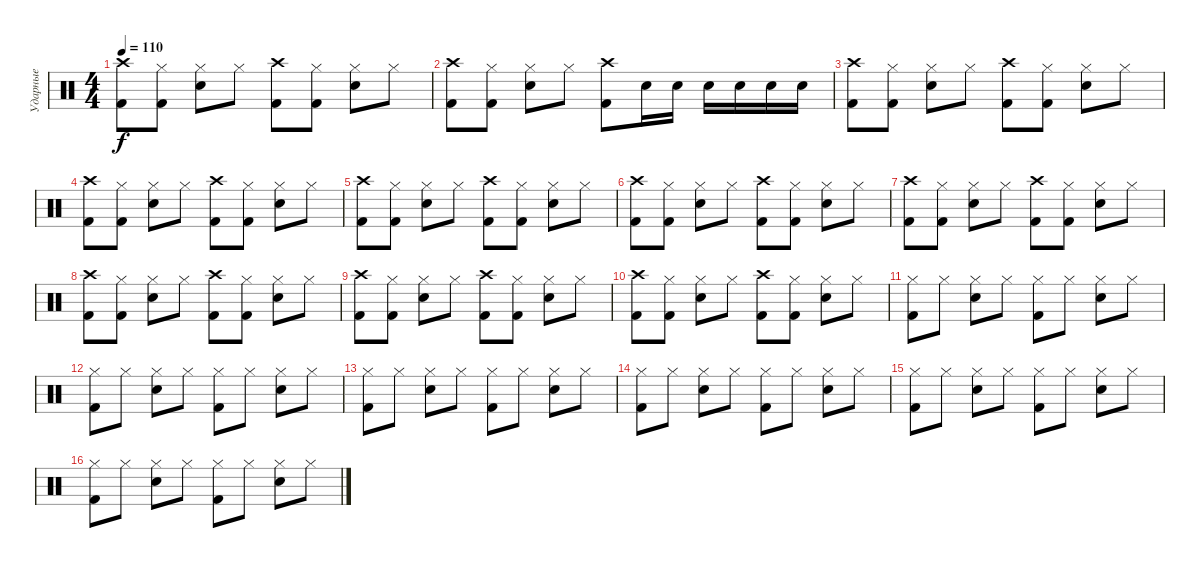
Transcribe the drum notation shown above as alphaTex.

\track ("Ударные" "Ударные") {instrument percussion}
\staff {score}
\articulation defaults
\ts (4 4)
\tempo 110
\clef neutral
\ks c
("Crash high (hit)" "Kick (hit) 2").8{dy f} ("Hi-Hat (closed)" "Kick (hit) 2").8 ("Hi-Hat (closed)" "Snare (hit) 2").8 "Hi-Hat (closed)".8 ("Crash high (hit)" "Kick (hit) 2").8 ("Hi-Hat (closed)" "Kick (hit) 2").8 ("Hi-Hat (closed)" "Snare (hit) 2").8 "Hi-Hat (closed)".8 |
("Crash high (hit)" "Kick (hit) 2").8 ("Hi-Hat (closed)" "Kick (hit) 2").8 ("Hi-Hat (closed)" "Snare (hit) 2").8 "Hi-Hat (closed)".8 ("Crash high (hit)" "Kick (hit) 2").8 "Snare (hit) 2".16 "Snare (hit) 2".16 "Snare (hit) 2".16 "Snare (hit) 2".16 "Snare (hit) 2".16 "Snare (hit) 2".16 |
("Crash high (hit)" "Kick (hit) 2").8 ("Hi-Hat (closed)" "Kick (hit) 2").8 ("Hi-Hat (closed)" "Snare (hit) 2").8 "Hi-Hat (closed)".8 ("Crash high (hit)" "Kick (hit) 2").8 ("Hi-Hat (closed)" "Kick (hit) 2").8 ("Hi-Hat (closed)" "Snare (hit) 2").8 "Hi-Hat (closed)".8 |
("Crash high (hit)" "Kick (hit) 2").8 ("Hi-Hat (closed)" "Kick (hit) 2").8 ("Hi-Hat (closed)" "Snare (hit) 2").8 "Hi-Hat (closed)".8 ("Crash high (hit)" "Kick (hit) 2").8 ("Hi-Hat (closed)" "Kick (hit) 2").8 ("Hi-Hat (closed)" "Snare (hit) 2").8 "Hi-Hat (closed)".8 |
("Crash high (hit)" "Kick (hit) 2").8 ("Hi-Hat (closed)" "Kick (hit) 2").8 ("Hi-Hat (closed)" "Snare (hit) 2").8 "Hi-Hat (closed)".8 ("Crash high (hit)" "Kick (hit) 2").8 ("Hi-Hat (closed)" "Kick (hit) 2").8 ("Hi-Hat (closed)" "Snare (hit) 2").8 "Hi-Hat (closed)".8 |
("Crash high (hit)" "Kick (hit) 2").8 ("Hi-Hat (closed)" "Kick (hit) 2").8 ("Hi-Hat (closed)" "Snare (hit) 2").8 "Hi-Hat (closed)".8 ("Crash high (hit)" "Kick (hit) 2").8 ("Hi-Hat (closed)" "Kick (hit) 2").8 ("Hi-Hat (closed)" "Snare (hit) 2").8 "Hi-Hat (closed)".8 |
("Crash high (hit)" "Kick (hit) 2").8 ("Hi-Hat (closed)" "Kick (hit) 2").8 ("Hi-Hat (closed)" "Snare (hit) 2").8 "Hi-Hat (closed)".8 ("Crash high (hit)" "Kick (hit) 2").8 ("Hi-Hat (closed)" "Kick (hit) 2").8 ("Hi-Hat (closed)" "Snare (hit) 2").8 "Hi-Hat (closed)".8 |
("Crash high (hit)" "Kick (hit) 2").8 ("Hi-Hat (closed)" "Kick (hit) 2").8 ("Hi-Hat (closed)" "Snare (hit) 2").8 "Hi-Hat (closed)".8 ("Crash high (hit)" "Kick (hit) 2").8 ("Hi-Hat (closed)" "Kick (hit) 2").8 ("Hi-Hat (closed)" "Snare (hit) 2").8 "Hi-Hat (closed)".8 |
("Crash high (hit)" "Kick (hit) 2").8 ("Hi-Hat (closed)" "Kick (hit) 2").8 ("Hi-Hat (closed)" "Snare (hit) 2").8 "Hi-Hat (closed)".8 ("Crash high (hit)" "Kick (hit) 2").8 ("Hi-Hat (closed)" "Kick (hit) 2").8 ("Hi-Hat (closed)" "Snare (hit) 2").8 "Hi-Hat (closed)".8 |
("Crash high (hit)" "Kick (hit) 2").8 ("Hi-Hat (closed)" "Kick (hit) 2").8 ("Hi-Hat (closed)" "Snare (hit) 2").8 "Hi-Hat (closed)".8 ("Crash high (hit)" "Kick (hit) 2").8 ("Hi-Hat (closed)" "Kick (hit) 2").8 ("Hi-Hat (closed)" "Snare (hit) 2").8 "Hi-Hat (closed)".8 |
("Hi-Hat (closed)" "Kick (hit) 2").8 "Hi-Hat (closed)".8 ("Hi-Hat (closed)" "Snare (hit) 2").8 "Hi-Hat (closed)".8 ("Hi-Hat (closed)" "Kick (hit) 2").8 "Hi-Hat (closed)".8 ("Hi-Hat (closed)" "Snare (hit) 2").8 "Hi-Hat (closed)".8 |
("Hi-Hat (closed)" "Kick (hit) 2").8 "Hi-Hat (closed)".8 ("Hi-Hat (closed)" "Snare (hit) 2").8 "Hi-Hat (closed)".8 ("Hi-Hat (closed)" "Kick (hit) 2").8 "Hi-Hat (closed)".8 ("Hi-Hat (closed)" "Snare (hit) 2").8 "Hi-Hat (closed)".8 |
("Hi-Hat (closed)" "Kick (hit) 2").8 "Hi-Hat (closed)".8 ("Hi-Hat (closed)" "Snare (hit) 2").8 "Hi-Hat (closed)".8 ("Hi-Hat (closed)" "Kick (hit) 2").8 "Hi-Hat (closed)".8 ("Hi-Hat (closed)" "Snare (hit) 2").8 "Hi-Hat (closed)".8 |
("Hi-Hat (closed)" "Kick (hit) 2").8 "Hi-Hat (closed)".8 ("Hi-Hat (closed)" "Snare (hit) 2").8 "Hi-Hat (closed)".8 ("Hi-Hat (closed)" "Kick (hit) 2").8 "Hi-Hat (closed)".8 ("Hi-Hat (closed)" "Snare (hit) 2").8 "Hi-Hat (closed)".8 |
("Hi-Hat (closed)" "Kick (hit) 2").8 "Hi-Hat (closed)".8 ("Hi-Hat (closed)" "Snare (hit) 2").8 "Hi-Hat (closed)".8 ("Hi-Hat (closed)" "Kick (hit) 2").8 "Hi-Hat (closed)".8 ("Hi-Hat (closed)" "Snare (hit) 2").8 "Hi-Hat (closed)".8 |
("Hi-Hat (closed)" "Kick (hit) 2").8 "Hi-Hat (closed)".8 ("Hi-Hat (closed)" "Snare (hit) 2").8 "Hi-Hat (closed)".8 ("Hi-Hat (closed)" "Kick (hit) 2").8 "Hi-Hat (closed)".8 ("Hi-Hat (closed)" "Snare (hit) 2").8 "Hi-Hat (closed)".8
